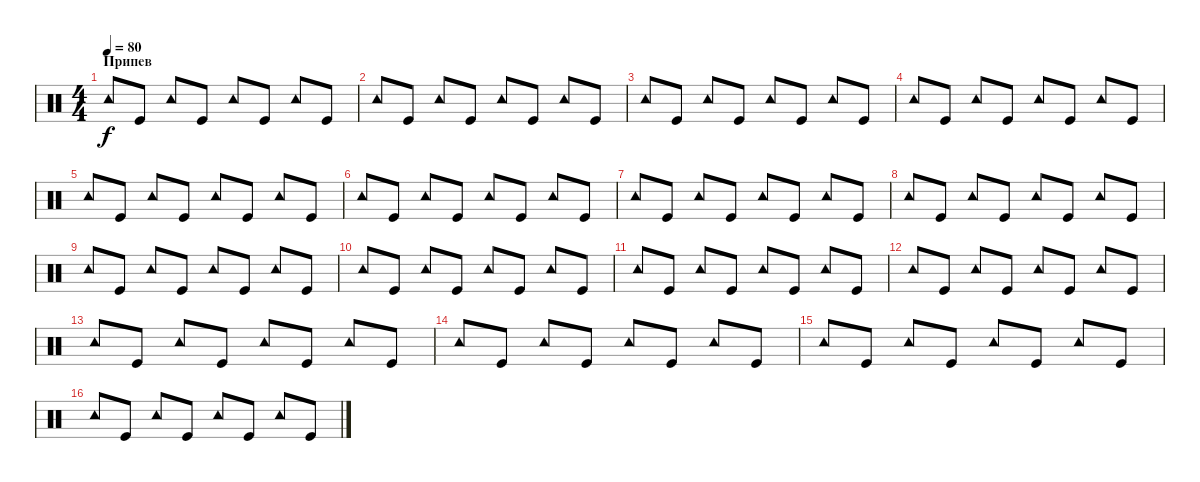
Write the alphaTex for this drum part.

\track "" {instrument percussion}
\staff {score}
\articulation defaults
\ts (4 4)
\section ("" "Припев")
\tempo 80
\clef neutral
\ks c "Tambourine (hit)".8{dy f} "Kick (hit)".8 "Tambourine (hit)".8 "Kick (hit)".8 "Tambourine (hit)".8 "Kick (hit)".8 "Tambourine (hit)".8 "Kick (hit)".8
|
"Tambourine (hit)".8 "Kick (hit)".8 "Tambourine (hit)".8 "Kick (hit)".8 "Tambourine (hit)".8 "Kick (hit)".8 "Tambourine (hit)".8 "Kick (hit)".8 |
"Tambourine (hit)".8 "Kick (hit)".8 "Tambourine (hit)".8 "Kick (hit)".8 "Tambourine (hit)".8 "Kick (hit)".8 "Tambourine (hit)".8 "Kick (hit)".8 |
"Tambourine (hit)".8 "Kick (hit)".8 "Tambourine (hit)".8 "Kick (hit)".8 "Tambourine (hit)".8 "Kick (hit)".8 "Tambourine (hit)".8 "Kick (hit)".8 |
"Tambourine (hit)".8 "Kick (hit)".8 "Tambourine (hit)".8 "Kick (hit)".8 "Tambourine (hit)".8 "Kick (hit)".8 "Tambourine (hit)".8 "Kick (hit)".8 |
"Tambourine (hit)".8 "Kick (hit)".8 "Tambourine (hit)".8 "Kick (hit)".8 "Tambourine (hit)".8 "Kick (hit)".8 "Tambourine (hit)".8 "Kick (hit)".8 |
"Tambourine (hit)".8 "Kick (hit)".8 "Tambourine (hit)".8 "Kick (hit)".8 "Tambourine (hit)".8 "Kick (hit)".8 "Tambourine (hit)".8 "Kick (hit)".8 |
"Tambourine (hit)".8 "Kick (hit)".8 "Tambourine (hit)".8 "Kick (hit)".8 "Tambourine (hit)".8 "Kick (hit)".8 "Tambourine (hit)".8 "Kick (hit)".8 |
"Tambourine (hit)".8 "Kick (hit)".8 "Tambourine (hit)".8 "Kick (hit)".8 "Tambourine (hit)".8 "Kick (hit)".8 "Tambourine (hit)".8 "Kick (hit)".8 |
"Tambourine (hit)".8 "Kick (hit)".8 "Tambourine (hit)".8 "Kick (hit)".8 "Tambourine (hit)".8 "Kick (hit)".8 "Tambourine (hit)".8 "Kick (hit)".8 |
"Tambourine (hit)".8 "Kick (hit)".8 "Tambourine (hit)".8 "Kick (hit)".8 "Tambourine (hit)".8 "Kick (hit)".8 "Tambourine (hit)".8 "Kick (hit)".8 |
"Tambourine (hit)".8 "Kick (hit)".8 "Tambourine (hit)".8 "Kick (hit)".8 "Tambourine (hit)".8 "Kick (hit)".8 "Tambourine (hit)".8 "Kick (hit)".8 |
"Tambourine (hit)".8 "Kick (hit)".8 "Tambourine (hit)".8 "Kick (hit)".8 "Tambourine (hit)".8 "Kick (hit)".8 "Tambourine (hit)".8 "Kick (hit)".8 |
"Tambourine (hit)".8 "Kick (hit)".8 "Tambourine (hit)".8 "Kick (hit)".8 "Tambourine (hit)".8 "Kick (hit)".8 "Tambourine (hit)".8 "Kick (hit)".8 |
"Tambourine (hit)".8 "Kick (hit)".8 "Tambourine (hit)".8 "Kick (hit)".8 "Tambourine (hit)".8 "Kick (hit)".8 "Tambourine (hit)".8 "Kick (hit)".8 |
"Tambourine (hit)".8 "Kick (hit)".8 "Tambourine (hit)".8 "Kick (hit)".8 "Tambourine (hit)".8 "Kick (hit)".8 "Tambourine (hit)".8 "Kick (hit)".8
